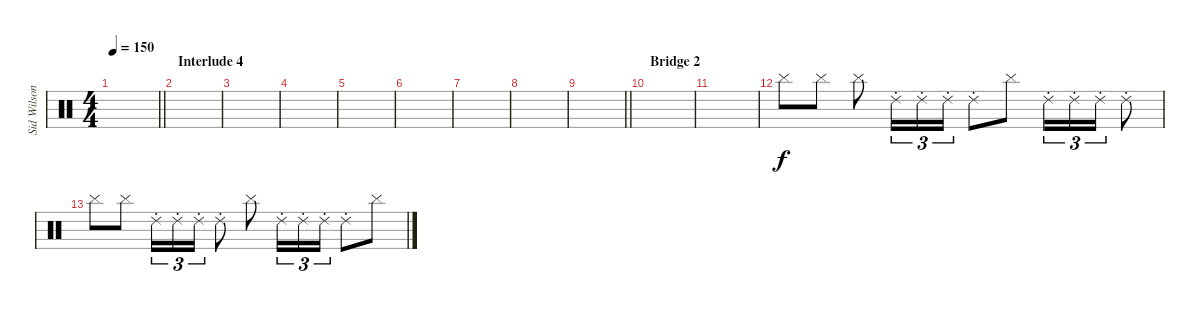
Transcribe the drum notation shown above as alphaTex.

\track ("Sid Wilson" "Sid Wilson") {instrument percussion}
\staff {score}
\articulation defaults
\ts (4 4)
\tempo 150
\clef neutral
\barLineRight lightlight
\ks c
|
\section ("" "Interlude 4")
|
|
|
|
|
|
|
\barLineRight lightlight
|
\section ("" "Bridge 2")
|
|
"Cymbal (hit)".8 "Cymbal (hit)".8 "Cymbal (hit)".8 "Ride (choke) 2".16{tu (3 2)} "Ride (choke) 2".16{tu (3 2)} "Ride (choke) 2".16{tu (3 2)} "Ride (choke) 2".8 "Cymbal (hit)".8 "Ride (choke) 2".16{tu (3 2)} "Ride (choke) 2".16{tu (3 2)} "Ride (choke) 2".16{tu (3 2)} "Ride (choke) 2".8 |
"Cymbal (hit)".8 "Cymbal (hit)".8 "Ride (choke) 2".16{tu (3 2)} "Ride (choke) 2".16{tu (3 2)} "Ride (choke) 2".16{tu (3 2)} "Ride (choke) 2".8 "Cymbal (hit)".8 "Ride (choke) 2".16{tu (3 2)} "Ride (choke) 2".16{tu (3 2)} "Ride (choke) 2".16{tu (3 2)} "Ride (choke) 2".8 "Cymbal (hit)".8
